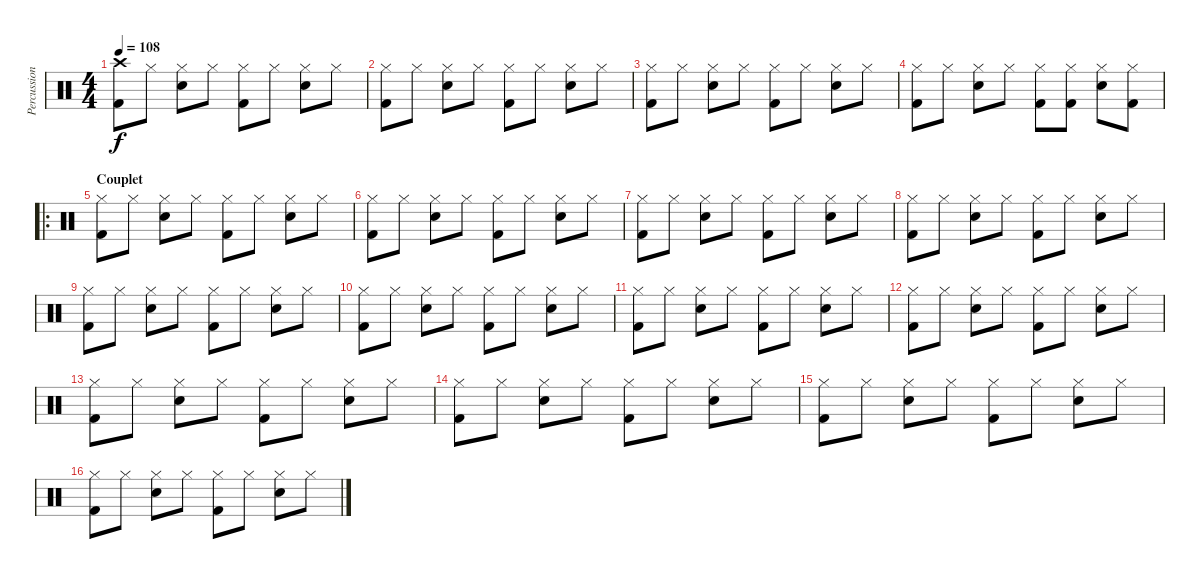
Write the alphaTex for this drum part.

\track ("Percussions" "Percussion") {instrument percussion}
\staff {score}
\articulation defaults
\ts (4 4)
\tempo 108
\clef neutral
\ks c
("Crash high (hit)" "Kick (hit) 2").8{dy f} "Hi-Hat (closed)".8 ("Hi-Hat (closed)" "Snare (hit) 2").8 "Hi-Hat (closed)".8 ("Hi-Hat (closed)" "Kick (hit) 2").8 "Hi-Hat (closed)".8 ("Hi-Hat (closed)" "Snare (hit) 2").8 "Hi-Hat (closed)".8 |
("Hi-Hat (closed)" "Kick (hit) 2").8 "Hi-Hat (closed)".8 ("Hi-Hat (closed)" "Snare (hit) 2").8 "Hi-Hat (closed)".8 ("Hi-Hat (closed)" "Kick (hit) 2").8 "Hi-Hat (closed)".8 ("Hi-Hat (closed)" "Snare (hit) 2").8 "Hi-Hat (closed)".8 |
("Hi-Hat (closed)" "Kick (hit) 2").8 "Hi-Hat (closed)".8 ("Hi-Hat (closed)" "Snare (hit) 2").8 "Hi-Hat (closed)".8 ("Hi-Hat (closed)" "Kick (hit) 2").8 "Hi-Hat (closed)".8 ("Hi-Hat (closed)" "Snare (hit) 2").8 "Hi-Hat (closed)".8 |
("Hi-Hat (closed)" "Kick (hit) 2").8 "Hi-Hat (closed)".8 ("Hi-Hat (closed)" "Snare (hit) 2").8 "Hi-Hat (closed)".8 ("Hi-Hat (closed)" "Kick (hit) 2").8 ("Hi-Hat (closed)" "Kick (hit) 2").8 ("Hi-Hat (closed)" "Snare (hit) 2").8 ("Hi-Hat (closed)" "Kick (hit) 2").8 |
\ro
\section ("" "Couplet")
("Hi-Hat (closed)" "Kick (hit) 2").8 "Hi-Hat (closed)".8 ("Hi-Hat (closed)" "Snare (hit) 2").8 "Hi-Hat (closed)".8 ("Hi-Hat (closed)" "Kick (hit) 2").8 "Hi-Hat (closed)".8 ("Hi-Hat (closed)" "Snare (hit) 2").8 "Hi-Hat (closed)".8 |
("Hi-Hat (closed)" "Kick (hit) 2").8 "Hi-Hat (closed)".8 ("Hi-Hat (closed)" "Snare (hit) 2").8 "Hi-Hat (closed)".8 ("Hi-Hat (closed)" "Kick (hit) 2").8 "Hi-Hat (closed)".8 ("Hi-Hat (closed)" "Snare (hit) 2").8 "Hi-Hat (closed)".8 |
("Hi-Hat (closed)" "Kick (hit) 2").8 "Hi-Hat (closed)".8 ("Hi-Hat (closed)" "Snare (hit) 2").8 "Hi-Hat (closed)".8 ("Hi-Hat (closed)" "Kick (hit) 2").8 "Hi-Hat (closed)".8 ("Hi-Hat (closed)" "Snare (hit) 2").8 "Hi-Hat (closed)".8 |
("Hi-Hat (closed)" "Kick (hit) 2").8 "Hi-Hat (closed)".8 ("Hi-Hat (closed)" "Snare (hit) 2").8 "Hi-Hat (closed)".8 ("Hi-Hat (closed)" "Kick (hit) 2").8 "Hi-Hat (closed)".8 ("Hi-Hat (closed)" "Snare (hit) 2").8 "Hi-Hat (closed)".8 |
("Hi-Hat (closed)" "Kick (hit) 2").8 "Hi-Hat (closed)".8 ("Hi-Hat (closed)" "Snare (hit) 2").8 "Hi-Hat (closed)".8 ("Hi-Hat (closed)" "Kick (hit) 2").8 "Hi-Hat (closed)".8 ("Hi-Hat (closed)" "Snare (hit) 2").8 "Hi-Hat (closed)".8 |
("Hi-Hat (closed)" "Kick (hit) 2").8 "Hi-Hat (closed)".8 ("Hi-Hat (closed)" "Snare (hit) 2").8 "Hi-Hat (closed)".8 ("Hi-Hat (closed)" "Kick (hit) 2").8 "Hi-Hat (closed)".8 ("Hi-Hat (closed)" "Snare (hit) 2").8 "Hi-Hat (closed)".8 |
("Hi-Hat (closed)" "Kick (hit) 2").8 "Hi-Hat (closed)".8 ("Hi-Hat (closed)" "Snare (hit) 2").8 "Hi-Hat (closed)".8 ("Hi-Hat (closed)" "Kick (hit) 2").8 "Hi-Hat (closed)".8 ("Hi-Hat (closed)" "Snare (hit) 2").8 "Hi-Hat (closed)".8 |
("Hi-Hat (closed)" "Kick (hit) 2").8 "Hi-Hat (closed)".8 ("Hi-Hat (closed)" "Snare (hit) 2").8 "Hi-Hat (closed)".8 ("Hi-Hat (closed)" "Kick (hit) 2").8 "Hi-Hat (closed)".8 ("Hi-Hat (closed)" "Snare (hit) 2").8 "Hi-Hat (closed)".8 |
("Hi-Hat (closed)" "Kick (hit) 2").8 "Hi-Hat (closed)".8 ("Hi-Hat (closed)" "Snare (hit) 2").8 "Hi-Hat (closed)".8 ("Hi-Hat (closed)" "Kick (hit) 2").8 "Hi-Hat (closed)".8 ("Hi-Hat (closed)" "Snare (hit) 2").8 "Hi-Hat (closed)".8 |
("Hi-Hat (closed)" "Kick (hit) 2").8 "Hi-Hat (closed)".8 ("Hi-Hat (closed)" "Snare (hit) 2").8 "Hi-Hat (closed)".8 ("Hi-Hat (closed)" "Kick (hit) 2").8 "Hi-Hat (closed)".8 ("Hi-Hat (closed)" "Snare (hit) 2").8 "Hi-Hat (closed)".8 |
("Hi-Hat (closed)" "Kick (hit) 2").8 "Hi-Hat (closed)".8 ("Hi-Hat (closed)" "Snare (hit) 2").8 "Hi-Hat (closed)".8 ("Hi-Hat (closed)" "Kick (hit) 2").8 "Hi-Hat (closed)".8 ("Hi-Hat (closed)" "Snare (hit) 2").8 "Hi-Hat (closed)".8 |
("Hi-Hat (closed)" "Kick (hit) 2").8 "Hi-Hat (closed)".8 ("Hi-Hat (closed)" "Snare (hit) 2").8 "Hi-Hat (closed)".8 ("Hi-Hat (closed)" "Kick (hit) 2").8 "Hi-Hat (closed)".8 ("Hi-Hat (closed)" "Snare (hit) 2").8 "Hi-Hat (closed)".8
